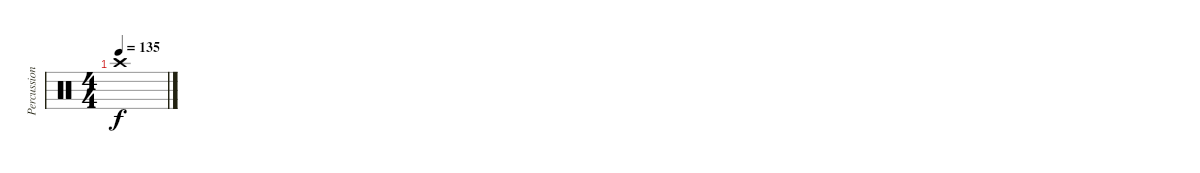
\track ("Percussion" "Percussion") {instrument percussion}
\staff {score}
\articulation defaults
\ts (4 4)
\tempo 135
\clef neutral
\ks c "Crash high (hit)"{t}.1{dy f}
